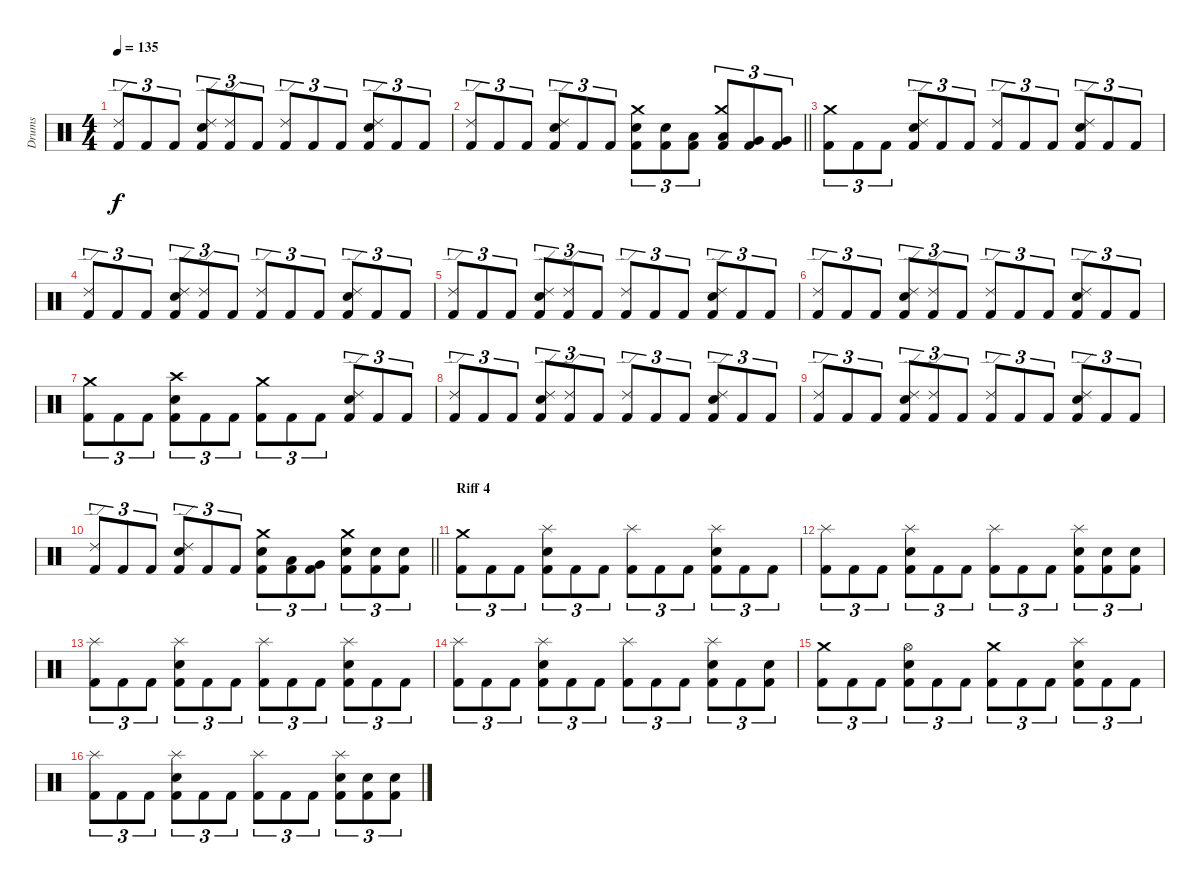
\track ("Drums" "Drums") {instrument percussion}
\staff {score}
\articulation defaults
\ts (4 4)
\tempo 135
\clef neutral
\ks c
("Kick (hit) 2" "Ride (edge) 2").8{tu (3 2) dy f} "Kick (hit) 2".8{tu (3 2)} "Kick (hit) 2".8{tu (3 2)} ("Kick (hit) 2" "Snare (hit) 2" "Ride (edge) 2").8{tu (3 2)} ("Kick (hit) 2" "Ride (edge) 2").8{tu (3 2)} "Kick (hit) 2".8{tu (3 2)} ("Kick (hit) 2" "Ride (edge) 2").8{tu (3 2)} "Kick (hit) 2".8{tu (3 2)} "Kick (hit) 2".8{tu (3 2)} ("Kick (hit) 2" "Snare (hit) 2" "Ride (edge) 2").8{tu (3 2)} "Kick (hit) 2".8{tu (3 2)} "Kick (hit) 2".8{tu (3 2)} |
\barLineRight lightlight
("Kick (hit) 2" "Ride (edge) 2").8{tu (3 2)} "Kick (hit) 2".8{tu (3 2)} "Kick (hit) 2".8{tu (3 2)} ("Kick (hit) 2" "Snare (hit) 2" "Ride (edge) 2").8{tu (3 2)} "Kick (hit) 2".8{tu (3 2)} "Kick (hit) 2".8{tu (3 2)} ("Kick (hit) 2" "Snare (hit) 2" "Crash medium (hit)").8{tu (3 2)} ("Kick (hit) 2" "Snare (hit) 2").8{tu (3 2)} ("Kick (hit) 2" "Low Tom (hit)").8{tu (3 2)} ("Kick (hit) 2" "Low Tom (hit)" "Crash medium (hit)").8{tu (3 2)} ("Kick (hit) 2" "Very Low Tom (hit)").8{tu (3 2)} ("Kick (hit) 2" "Very Low Tom (hit)").8{tu (3 2)} |
\section ("" "")
("Kick (hit) 2" "Crash medium (hit)").8{tu (3 2)} "Kick (hit) 2".8{tu (3 2)} "Kick (hit) 2".8{tu (3 2)} ("Kick (hit) 2" "Snare (hit) 2" "Ride (edge) 2").8{tu (3 2)} "Kick (hit) 2".8{tu (3 2)} "Kick (hit) 2".8{tu (3 2)} ("Kick (hit) 2" "Ride (edge) 2").8{tu (3 2)} "Kick (hit) 2".8{tu (3 2)} "Kick (hit) 2".8{tu (3 2)} ("Kick (hit) 2" "Snare (hit) 2" "Ride (edge) 2").8{tu (3 2)} "Kick (hit) 2".8{tu (3 2)} "Kick (hit) 2".8{tu (3 2)} |
("Kick (hit) 2" "Ride (edge) 2").8{tu (3 2)} "Kick (hit) 2".8{tu (3 2)} "Kick (hit) 2".8{tu (3 2)} ("Kick (hit) 2" "Snare (hit) 2" "Ride (edge) 2").8{tu (3 2)} ("Kick (hit) 2" "Ride (edge) 2").8{tu (3 2)} "Kick (hit) 2".8{tu (3 2)} ("Kick (hit) 2" "Ride (edge) 2").8{tu (3 2)} "Kick (hit) 2".8{tu (3 2)} "Kick (hit) 2".8{tu (3 2)} ("Kick (hit) 2" "Snare (hit) 2" "Ride (edge) 2").8{tu (3 2)} "Kick (hit) 2".8{tu (3 2)} "Kick (hit) 2".8{tu (3 2)} |
("Kick (hit) 2" "Ride (edge) 2").8{tu (3 2)} "Kick (hit) 2".8{tu (3 2)} "Kick (hit) 2".8{tu (3 2)} ("Kick (hit) 2" "Snare (hit) 2" "Ride (edge) 2").8{tu (3 2)} ("Kick (hit) 2" "Ride (edge) 2").8{tu (3 2)} "Kick (hit) 2".8{tu (3 2)} ("Kick (hit) 2" "Ride (edge) 2").8{tu (3 2)} "Kick (hit) 2".8{tu (3 2)} "Kick (hit) 2".8{tu (3 2)} ("Kick (hit) 2" "Snare (hit) 2" "Ride (edge) 2").8{tu (3 2)} "Kick (hit) 2".8{tu (3 2)} "Kick (hit) 2".8{tu (3 2)} |
("Kick (hit) 2" "Ride (edge) 2").8{tu (3 2)} "Kick (hit) 2".8{tu (3 2)} "Kick (hit) 2".8{tu (3 2)} ("Kick (hit) 2" "Snare (hit) 2" "Ride (edge) 2").8{tu (3 2)} ("Kick (hit) 2" "Ride (edge) 2").8{tu (3 2)} "Kick (hit) 2".8{tu (3 2)} ("Kick (hit) 2" "Ride (edge) 2").8{tu (3 2)} "Kick (hit) 2".8{tu (3 2)} "Kick (hit) 2".8{tu (3 2)} ("Kick (hit) 2" "Snare (hit) 2" "Ride (edge) 2").8{tu (3 2)} "Kick (hit) 2".8{tu (3 2)} "Kick (hit) 2".8{tu (3 2)} |
("Kick (hit) 2" "Crash medium (hit)").8{tu (3 2)} "Kick (hit) 2".8{tu (3 2)} "Kick (hit) 2".8{tu (3 2)} ("Kick (hit) 2" "Snare (hit) 2" "Crash high (hit)").8{tu (3 2)} "Kick (hit) 2".8{tu (3 2)} "Kick (hit) 2".8{tu (3 2)} ("Kick (hit) 2" "Crash medium (hit)").8{tu (3 2)} "Kick (hit) 2".8{tu (3 2)} "Kick (hit) 2".8{tu (3 2)} ("Kick (hit) 2" "Snare (hit) 2" "Ride (edge) 2").8{tu (3 2)} "Kick (hit) 2".8{tu (3 2)} "Kick (hit) 2".8{tu (3 2)} |
("Kick (hit) 2" "Ride (edge) 2").8{tu (3 2)} "Kick (hit) 2".8{tu (3 2)} "Kick (hit) 2".8{tu (3 2)} ("Kick (hit) 2" "Snare (hit) 2" "Ride (edge) 2").8{tu (3 2)} ("Kick (hit) 2" "Ride (edge) 2").8{tu (3 2)} "Kick (hit) 2".8{tu (3 2)} ("Kick (hit) 2" "Ride (edge) 2").8{tu (3 2)} "Kick (hit) 2".8{tu (3 2)} "Kick (hit) 2".8{tu (3 2)} ("Kick (hit) 2" "Snare (hit) 2" "Ride (edge) 2").8{tu (3 2)} "Kick (hit) 2".8{tu (3 2)} "Kick (hit) 2".8{tu (3 2)} |
("Kick (hit) 2" "Ride (edge) 2").8{tu (3 2)} "Kick (hit) 2".8{tu (3 2)} "Kick (hit) 2".8{tu (3 2)} ("Kick (hit) 2" "Snare (hit) 2" "Ride (edge) 2").8{tu (3 2)} ("Kick (hit) 2" "Ride (edge) 2").8{tu (3 2)} "Kick (hit) 2".8{tu (3 2)} ("Kick (hit) 2" "Ride (edge) 2").8{tu (3 2)} "Kick (hit) 2".8{tu (3 2)} "Kick (hit) 2".8{tu (3 2)} ("Kick (hit) 2" "Snare (hit) 2" "Ride (edge) 2").8{tu (3 2)} "Kick (hit) 2".8{tu (3 2)} "Kick (hit) 2".8{tu (3 2)} |
\barLineRight lightlight
("Kick (hit) 2" "Ride (edge) 2").8{tu (3 2)} "Kick (hit) 2".8{tu (3 2)} "Kick (hit) 2".8{tu (3 2)} ("Kick (hit) 2" "Snare (hit) 2" "Ride (edge) 2").8{tu (3 2)} "Kick (hit) 2".8{tu (3 2)} "Kick (hit) 2".8{tu (3 2)} ("Kick (hit) 2" "Snare (hit) 2" "Crash medium (hit)").8{tu (3 2)} ("Kick (hit) 2" "Low Tom (hit)").8{tu (3 2)} ("Kick (hit) 2" "Very Low Tom (hit)").8{tu (3 2)} ("Kick (hit) 2" "Snare (hit) 2" "Crash medium (hit)").8{tu (3 2)} ("Kick (hit) 2" "Snare (hit) 2").8{tu (3 2)} ("Kick (hit) 2" "Snare (hit) 2").8{tu (3 2)} |
\section ("" "Riff 4")
("Kick (hit) 2" "Crash medium (hit)").8{tu (3 2)} "Kick (hit) 2".8{tu (3 2)} "Kick (hit) 2".8{tu (3 2)} ("Kick (hit) 2" "Snare (hit) 2" "Splash (hit)").8{tu (3 2)} "Kick (hit) 2".8{tu (3 2)} "Kick (hit) 2".8{tu (3 2)} ("Kick (hit) 2" "Splash (hit)").8{tu (3 2)} "Kick (hit) 2".8{tu (3 2)} "Kick (hit) 2".8{tu (3 2)} ("Kick (hit) 2" "Snare (hit) 2" "Splash (hit)").8{tu (3 2)} "Kick (hit) 2".8{tu (3 2)} "Kick (hit) 2".8{tu (3 2)} |
("Kick (hit) 2" "Splash (hit)").8{tu (3 2)} "Kick (hit) 2".8{tu (3 2)} "Kick (hit) 2".8{tu (3 2)} ("Kick (hit) 2" "Snare (hit) 2" "Splash (hit)").8{tu (3 2)} "Kick (hit) 2".8{tu (3 2)} "Kick (hit) 2".8{tu (3 2)} ("Kick (hit) 2" "Splash (hit)").8{tu (3 2)} "Kick (hit) 2".8{tu (3 2)} "Kick (hit) 2".8{tu (3 2)} ("Kick (hit) 2" "Snare (hit) 2" "Splash (hit)").8{tu (3 2)} ("Kick (hit) 2" "Snare (hit) 2").8{tu (3 2)} ("Kick (hit) 2" "Snare (hit) 2").8{tu (3 2)} |
("Kick (hit) 2" "Splash (hit)").8{tu (3 2)} "Kick (hit) 2".8{tu (3 2)} "Kick (hit) 2".8{tu (3 2)} ("Kick (hit) 2" "Snare (hit) 2" "Splash (hit)").8{tu (3 2)} "Kick (hit) 2".8{tu (3 2)} "Kick (hit) 2".8{tu (3 2)} ("Kick (hit) 2" "Splash (hit)").8{tu (3 2)} "Kick (hit) 2".8{tu (3 2)} "Kick (hit) 2".8{tu (3 2)} ("Kick (hit) 2" "Snare (hit) 2" "Splash (hit)").8{tu (3 2)} "Kick (hit) 2".8{tu (3 2)} "Kick (hit) 2".8{tu (3 2)} |
("Kick (hit) 2" "Splash (hit)").8{tu (3 2)} "Kick (hit) 2".8{tu (3 2)} "Kick (hit) 2".8{tu (3 2)} ("Kick (hit) 2" "Snare (hit) 2" "Splash (hit)").8{tu (3 2)} "Kick (hit) 2".8{tu (3 2)} "Kick (hit) 2".8{tu (3 2)} ("Kick (hit) 2" "Splash (hit)").8{tu (3 2)} "Kick (hit) 2".8{tu (3 2)} "Kick (hit) 2".8{tu (3 2)} ("Kick (hit) 2" "Snare (hit) 2" "Splash (hit)").8{tu (3 2)} "Kick (hit) 2".8{tu (3 2)} ("Kick (hit) 2" "Snare (hit) 2").8{tu (3 2)} |
("Kick (hit) 2" "Crash medium (hit)").8{tu (3 2)} "Kick (hit) 2".8{tu (3 2)} "Kick (hit) 2".8{tu (3 2)} ("Kick (hit) 2" "Snare (hit) 2" "Hi-Hat (open)").8{tu (3 2)} "Kick (hit) 2".8{tu (3 2)} "Kick (hit) 2".8{tu (3 2)} ("Kick (hit) 2" "Crash medium (hit)").8{tu (3 2)} "Kick (hit) 2".8{tu (3 2)} "Kick (hit) 2".8{tu (3 2)} ("Kick (hit) 2" "Snare (hit) 2" "Splash (hit)").8{tu (3 2)} "Kick (hit) 2".8{tu (3 2)} "Kick (hit) 2".8{tu (3 2)} |
("Kick (hit) 2" "Splash (hit)").8{tu (3 2)} "Kick (hit) 2".8{tu (3 2)} "Kick (hit) 2".8{tu (3 2)} ("Kick (hit) 2" "Snare (hit) 2" "Splash (hit)").8{tu (3 2)} "Kick (hit) 2".8{tu (3 2)} "Kick (hit) 2".8{tu (3 2)} ("Kick (hit) 2" "Splash (hit)").8{tu (3 2)} "Kick (hit) 2".8{tu (3 2)} "Kick (hit) 2".8{tu (3 2)} ("Kick (hit) 2" "Snare (hit) 2" "Splash (hit)").8{tu (3 2)} ("Kick (hit) 2" "Snare (hit) 2").8{tu (3 2)} ("Kick (hit) 2" "Snare (hit) 2").8{tu (3 2)}
